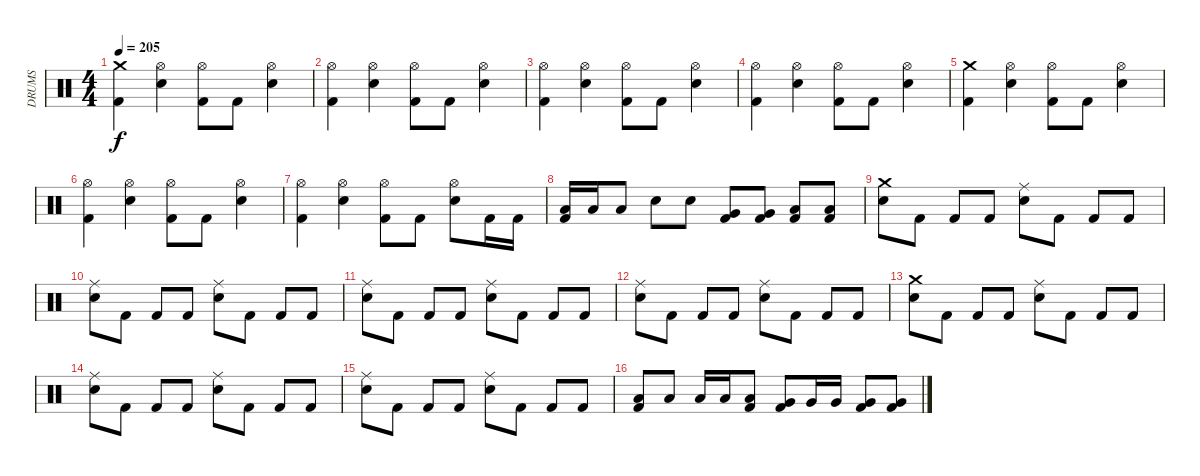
\track ("DRUMS" "DRUMS") {instrument percussion}
\staff {score}
\articulation defaults
\ts (4 4)
\tempo 205
\clef neutral
\ks c
("Crash medium (hit)" "Kick (hit) 2").4{dy f} ("Hi-Hat (open)" "Snare (hit) 2").4 ("Hi-Hat (open)" "Kick (hit) 2").8 "Kick (hit) 2".8 ("Hi-Hat (open)" "Snare (hit) 2").4 |
("Hi-Hat (open)" "Kick (hit) 2").4 ("Hi-Hat (open)" "Snare (hit) 2").4 ("Hi-Hat (open)" "Kick (hit) 2").8 "Kick (hit) 2".8 ("Hi-Hat (open)" "Snare (hit) 2").4 |
("Hi-Hat (open)" "Kick (hit) 2").4 ("Hi-Hat (open)" "Snare (hit) 2").4 ("Hi-Hat (open)" "Kick (hit) 2").8 "Kick (hit) 2".8 ("Hi-Hat (open)" "Snare (hit) 2").4 |
("Hi-Hat (open)" "Kick (hit) 2").4 ("Hi-Hat (open)" "Snare (hit) 2").4 ("Hi-Hat (open)" "Kick (hit) 2").8 "Kick (hit) 2".8 ("Hi-Hat (open)" "Snare (hit) 2").4 |
("Crash medium (hit)" "Kick (hit) 2").4 ("Hi-Hat (open)" "Snare (hit) 2").4 ("Hi-Hat (open)" "Kick (hit) 2").8 "Kick (hit) 2".8 ("Hi-Hat (open)" "Snare (hit) 2").4 |
("Hi-Hat (open)" "Kick (hit) 2").4 ("Hi-Hat (open)" "Snare (hit) 2").4 ("Hi-Hat (open)" "Kick (hit) 2").8 "Kick (hit) 2".8 ("Hi-Hat (open)" "Snare (hit) 2").4 |
("Hi-Hat (open)" "Kick (hit) 2").4 ("Hi-Hat (open)" "Snare (hit) 2").4 ("Hi-Hat (open)" "Kick (hit) 2").8 "Kick (hit) 2".8 ("Hi-Hat (open)" "Snare (hit) 2").8 "Kick (hit) 2".16 "Kick (hit) 2".16 |
("Low Tom (hit)" "Kick (hit) 2").16 "Low Tom (hit)".16 "Low Tom (hit)".8 "Snare (hit) 2".8 "Snare (hit) 2".8 ("Very Low Tom (hit)" "Kick (hit) 2").8 ("Very Low Tom (hit)" "Kick (hit) 2").8 ("Low Tom (hit)" "Kick (hit) 2").8 ("Low Tom (hit)" "Kick (hit) 2").8 |
("Crash medium (hit)" "Snare (hit) 2").8 "Kick (hit) 2".8 "Kick (hit) 2".8 "Kick (hit) 2".8 ("Ride (middle)" "Snare (hit) 2").8 "Kick (hit) 2".8 "Kick (hit) 2".8 "Kick (hit) 2".8 |
("Ride (middle)" "Snare (hit) 2").8 "Kick (hit) 2".8 "Kick (hit) 2".8 "Kick (hit) 2".8 ("Ride (middle)" "Snare (hit) 2").8 "Kick (hit) 2".8 "Kick (hit) 2".8 "Kick (hit) 2".8 |
("Ride (middle)" "Snare (hit) 2").8 "Kick (hit) 2".8 "Kick (hit) 2".8 "Kick (hit) 2".8 ("Ride (middle)" "Snare (hit) 2").8 "Kick (hit) 2".8 "Kick (hit) 2".8 "Kick (hit) 2".8 |
("Ride (middle)" "Snare (hit) 2").8 "Kick (hit) 2".8 "Kick (hit) 2".8 "Kick (hit) 2".8 ("Ride (middle)" "Snare (hit) 2").8 "Kick (hit) 2".8 "Kick (hit) 2".8 "Kick (hit) 2".8 |
("Crash medium (hit)" "Snare (hit) 2").8 "Kick (hit) 2".8 "Kick (hit) 2".8 "Kick (hit) 2".8 ("Ride (middle)" "Snare (hit) 2").8 "Kick (hit) 2".8 "Kick (hit) 2".8 "Kick (hit) 2".8 |
("Ride (middle)" "Snare (hit) 2").8 "Kick (hit) 2".8 "Kick (hit) 2".8 "Kick (hit) 2".8 ("Ride (middle)" "Snare (hit) 2").8 "Kick (hit) 2".8 "Kick (hit) 2".8 "Kick (hit) 2".8 |
("Ride (middle)" "Snare (hit) 2").8 "Kick (hit) 2".8 "Kick (hit) 2".8 "Kick (hit) 2".8 ("Ride (middle)" "Snare (hit) 2").8 "Kick (hit) 2".8 "Kick (hit) 2".8 "Kick (hit) 2".8 |
("Low Tom (hit)" "Kick (hit) 2").8 "Low Tom (hit)".8 "Low Tom (hit)".16 "Low Tom (hit)".16 ("Low Tom (hit)" "Kick (hit) 2").8 ("Very Low Tom (hit)" "Kick (hit) 2").8 "Very Low Tom (hit)".16 "Very Low Tom (hit)".16 ("Very Low Tom (hit)" "Kick (hit) 2").8 ("Very Low Tom (hit)" "Kick (hit) 2").8
